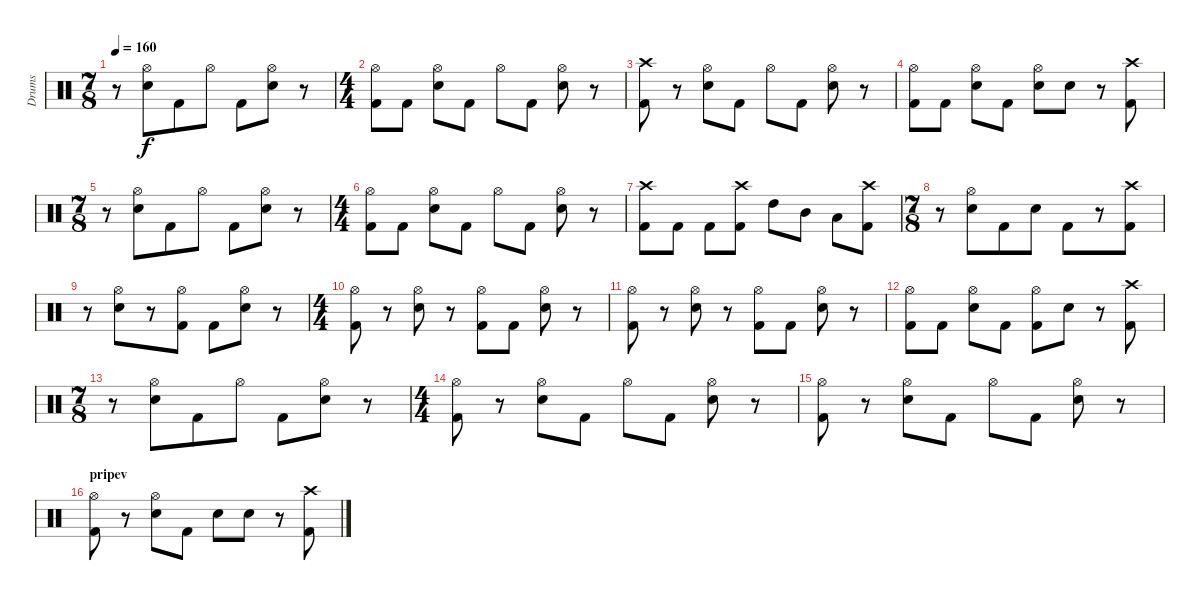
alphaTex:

\track ("Drums" "Drums") {instrument percussion}
\staff {score}
\articulation defaults
\ts (7 8)
\tempo 160
\clef neutral
\ks c
r.8{dy f} ("Snare (hit) 2" "Hi-Hat (open)").8 "Kick (hit) 2".8 "Hi-Hat (open)".8 "Kick (hit) 2".8 ("Snare (hit) 2" "Hi-Hat (open)").8 r.8 |
\ts (4 4)
("Kick (hit) 2" "Hi-Hat (open)").8 "Kick (hit) 2".8 ("Snare (hit) 2" "Hi-Hat (open)").8 "Kick (hit) 2".8 "Hi-Hat (open)".8 "Kick (hit) 2".8 ("Snare (hit) 2" "Hi-Hat (open)").8 r.8 |
("Kick (hit) 2" "Crash high (hit)").8 r.8 ("Snare (hit) 2" "Hi-Hat (open)").8 "Kick (hit) 2".8 "Hi-Hat (open)".8 "Kick (hit) 2".8 ("Snare (hit) 2" "Hi-Hat (open)").8 r.8 |
("Kick (hit) 2" "Hi-Hat (open)").8 "Kick (hit) 2".8 ("Snare (hit) 2" "Hi-Hat (open)").8 "Kick (hit) 2".8 ("Snare (hit) 2" "Hi-Hat (open)").8 "Snare (hit) 2".8 r.8 ("Kick (hit) 2" "Crash high (hit)").8 |
\ts (7 8)
r.8 ("Snare (hit) 2" "Hi-Hat (open)").8 "Kick (hit) 2".8 "Hi-Hat (open)".8 "Kick (hit) 2".8 ("Snare (hit) 2" "Hi-Hat (open)").8 r.8 |
\ts (4 4)
("Kick (hit) 2" "Hi-Hat (open)").8 "Kick (hit) 2".8 ("Snare (hit) 2" "Hi-Hat (open)").8 "Kick (hit) 2".8 "Hi-Hat (open)".8 "Kick (hit) 2".8 ("Snare (hit) 2" "Hi-Hat (open)").8 r.8 |
("Kick (hit) 2" "Crash high (hit)").8 "Kick (hit) 2".8 "Kick (hit) 2".8 ("Kick (hit) 2" "Crash high (hit)").8 "High Tom (hit)".8 "Mid Tom (hit)".8 "Low Tom (hit)".8 ("Kick (hit) 2" "Crash high (hit)").8 |
\ts (7 8)
r.8 ("Snare (hit) 2" "Hi-Hat (open)").8 "Kick (hit) 2".8 "Snare (hit) 2".8 "Kick (hit) 2".8 r.8 ("Kick (hit) 2" "Crash high (hit)").8 |
r.8 ("Snare (hit) 2" "Hi-Hat (open)").8 r.8 ("Kick (hit) 2" "Hi-Hat (open)").8 "Kick (hit) 2".8 ("Snare (hit) 2" "Hi-Hat (open)").8 r.8 |
\ts (4 4)
("Kick (hit) 2" "Hi-Hat (open)").8 r.8 ("Snare (hit) 2" "Hi-Hat (open)").8 r.8 ("Kick (hit) 2" "Hi-Hat (open)").8 "Kick (hit) 2".8 ("Snare (hit) 2" "Hi-Hat (open)").8 r.8 |
("Kick (hit) 2" "Hi-Hat (open)").8 r.8 ("Snare (hit) 2" "Hi-Hat (open)").8 r.8 ("Kick (hit) 2" "Hi-Hat (open)").8 "Kick (hit) 2".8 ("Snare (hit) 2" "Hi-Hat (open)").8 r.8 |
("Kick (hit) 2" "Hi-Hat (open)").8 "Kick (hit) 2".8 ("Snare (hit) 2" "Hi-Hat (open)").8 "Kick (hit) 2".8 ("Kick (hit) 2" "Hi-Hat (open)").8 "Snare (hit) 2".8 r.8 ("Kick (hit) 2" "Crash high (hit)").8 |
\ts (7 8)
r.8 ("Snare (hit) 2" "Hi-Hat (open)").8 "Kick (hit) 2".8 "Hi-Hat (open)".8 "Kick (hit) 2".8 ("Snare (hit) 2" "Hi-Hat (open)").8 r.8 |
\ts (4 4)
("Kick (hit) 2" "Hi-Hat (open)").8 r.8 ("Snare (hit) 2" "Hi-Hat (open)").8 "Kick (hit) 2".8 "Hi-Hat (open)".8 "Kick (hit) 2".8 ("Snare (hit) 2" "Hi-Hat (open)").8 r.8 |
("Kick (hit) 2" "Hi-Hat (open)").8 r.8 ("Snare (hit) 2" "Hi-Hat (open)").8 "Kick (hit) 2".8 "Hi-Hat (open)".8 "Kick (hit) 2".8 ("Snare (hit) 2" "Hi-Hat (open)").8 r.8 |
\section ("" "pripev")
("Kick (hit) 2" "Hi-Hat (open)").8 r.8 ("Snare (hit) 2" "Hi-Hat (open)").8 "Kick (hit) 2".8 "Snare (hit) 2".8 "Snare (hit) 2".8 r.8 ("Kick (hit) 2" "Crash high (hit)").8
